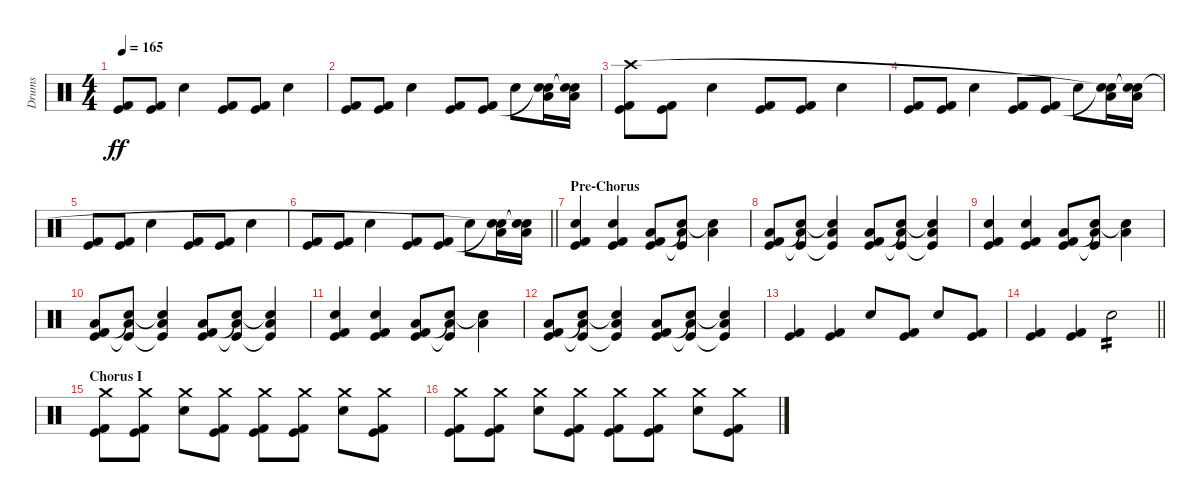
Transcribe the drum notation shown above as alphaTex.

\track ("Drums" "Drums") {instrument percussion}
\staff
\articulation defaults
\ts (4 4)
\tempo 165
\clef neutral
\ks c
("Kick (hit) 2" "Kick (hit)").8{dy ff} ("Kick (hit) 2" "Kick (hit)").8 "Electric Snare (hit)".4 ("Kick (hit) 2" "Kick (hit)").8 ("Kick (hit) 2" "Kick (hit)").8 "Electric Snare (hit)".4 |
("Kick (hit) 2" "Kick (hit)").8 ("Kick (hit) 2" "Kick (hit)").8 "Electric Snare (hit)".4 ("Kick (hit) 2" "Kick (hit)").8 ("Kick (hit) 2" "Kick (hit)").8 "Electric Snare (hit)".8 ("Low Tom (hit)" "Snare (hit)"{t} "Snare (hit)"{t}).16 ("Low Floor Tom (hit)" "Snare (hit)"{t} "Snare (hit)"{t}).16 |
("Kick (hit) 2" "Kick (hit)" "Crash high (hit)").8 ("Kick (hit) 2" "Kick (hit)").8 "Electric Snare (hit)".4 ("Kick (hit) 2" "Kick (hit)").8 ("Kick (hit) 2" "Kick (hit)").8 "Electric Snare (hit)".4 |
("Kick (hit) 2" "Kick (hit)").8 ("Kick (hit) 2" "Kick (hit)").8 "Electric Snare (hit)".4 ("Kick (hit) 2" "Kick (hit)").8 ("Kick (hit) 2" "Kick (hit)").8 "Electric Snare (hit)".8 ("Low Tom (hit)" "Snare (hit)"{t} "Snare (hit)"{t}).16 ("Low Floor Tom (hit)" "Snare (hit)"{t} "Snare (hit)"{t}).16 |
("Kick (hit) 2" "Kick (hit)").8 ("Kick (hit) 2" "Kick (hit)").8 "Electric Snare (hit)".4 ("Kick (hit) 2" "Kick (hit)").8 ("Kick (hit) 2" "Kick (hit)").8 "Electric Snare (hit)".4 |
\barLineRight lightlight
("Kick (hit) 2" "Kick (hit)").8 ("Kick (hit) 2" "Kick (hit)").8 "Electric Snare (hit)".4 ("Kick (hit) 2" "Kick (hit)").8 ("Kick (hit) 2" "Kick (hit)").8 "Electric Snare (hit)".8 ("Low Tom (hit)" "Snare (hit)"{t} "Snare (hit)"{t}).16 ("Low Floor Tom (hit)" "Snare (hit)"{t} "Snare (hit)"{t}).16 |
\section ("" "Pre-Chorus")
("Electric Snare (hit)" "Kick (hit) 2" "Kick (hit)").4 ("Electric Snare (hit)" "Kick (hit) 2" "Kick (hit)").4 ("Low Tom (hit)" "Kick (hit) 2" "Kick (hit)").8 ("Low Floor Tom (hit)" "Snare (hit)"{t} "Kick (hit)"{t}).8 ("Low Tom (hit)" "Snare (hit)"{t}).4 |
("Low Tom (hit)" "Kick (hit) 2" "Kick (hit)").8 ("Low Floor Tom (hit)" "Snare (hit)"{t} "Kick (hit)"{t}).8 ("Low Tom (hit)" "Snare (hit)"{t} "Kick (hit)"{t}).4 ("Low Tom (hit)" "Kick (hit) 2" "Kick (hit)").8 ("Low Floor Tom (hit)" "Snare (hit)"{t} "Kick (hit)"{t}).8 ("Low Tom (hit)" "Snare (hit)"{t} "Kick (hit)"{t}).4 |
("Electric Snare (hit)" "Kick (hit) 2" "Kick (hit)").4 ("Electric Snare (hit)" "Kick (hit) 2" "Kick (hit)").4 ("Low Tom (hit)" "Kick (hit) 2" "Kick (hit)").8 ("Low Floor Tom (hit)" "Snare (hit)"{t} "Kick (hit)"{t}).8 ("Low Tom (hit)" "Snare (hit)"{t}).4 |
("Low Tom (hit)" "Kick (hit) 2" "Kick (hit)").8 ("Low Floor Tom (hit)" "Snare (hit)"{t} "Kick (hit)"{t}).8 ("Low Tom (hit)" "Snare (hit)"{t} "Kick (hit)"{t}).4 ("Low Tom (hit)" "Kick (hit) 2" "Kick (hit)").8 ("Low Floor Tom (hit)" "Snare (hit)"{t} "Kick (hit)"{t}).8 ("Low Tom (hit)" "Snare (hit)"{t} "Kick (hit)"{t}).4 |
("Electric Snare (hit)" "Kick (hit) 2" "Kick (hit)").4 ("Electric Snare (hit)" "Kick (hit) 2" "Kick (hit)").4 ("Low Tom (hit)" "Kick (hit) 2" "Kick (hit)").8 ("Low Floor Tom (hit)" "Snare (hit)"{t} "Kick (hit)"{t}).8 ("Low Tom (hit)" "Snare (hit)"{t}).4 |
("Low Tom (hit)" "Kick (hit) 2" "Kick (hit)").8 ("Low Floor Tom (hit)" "Snare (hit)"{t} "Kick (hit)"{t}).8 ("Low Tom (hit)" "Snare (hit)"{t} "Kick (hit)"{t}).4 ("Low Tom (hit)" "Kick (hit) 2" "Kick (hit)").8 ("Low Floor Tom (hit)" "Snare (hit)"{t} "Kick (hit)"{t}).8 ("Low Tom (hit)" "Snare (hit)"{t} "Kick (hit)"{t}).4 |
("Kick (hit) 2" "Kick (hit)").4 ("Kick (hit) 2" "Kick (hit)").4 "Electric Snare (hit)".8 ("Kick (hit) 2" "Kick (hit)").8 "Electric Snare (hit)".8 ("Kick (hit) 2" "Kick (hit)").8 |
\barLineRight lightlight
("Kick (hit) 2" "Kick (hit)").4 ("Kick (hit) 2" "Kick (hit)").4 "Electric Snare (hit)".2{tp 2} |
\section ("" "Chorus I")
("Crash medium (hit)" "Kick (hit) 2" "Kick (hit)").8 ("Crash medium (hit)" "Kick (hit) 2" "Kick (hit)").8 ("Crash medium (hit)" "Electric Snare (hit)").8 ("Crash medium (hit)" "Kick (hit) 2" "Kick (hit)").8 ("Crash medium (hit)" "Kick (hit) 2" "Kick (hit)").8 ("Crash medium (hit)" "Kick (hit) 2" "Kick (hit)").8 ("Crash medium (hit)" "Electric Snare (hit)").8 ("Crash medium (hit)" "Kick (hit) 2" "Kick (hit)").8 |
("Crash medium (hit)" "Kick (hit) 2" "Kick (hit)").8 ("Crash medium (hit)" "Kick (hit) 2" "Kick (hit)").8 ("Crash medium (hit)" "Electric Snare (hit)").8 ("Crash medium (hit)" "Kick (hit) 2" "Kick (hit)").8 ("Crash medium (hit)" "Kick (hit) 2" "Kick (hit)").8 ("Crash medium (hit)" "Kick (hit) 2" "Kick (hit)").8 ("Crash medium (hit)" "Electric Snare (hit)").8 ("Crash medium (hit)" "Kick (hit) 2" "Kick (hit)").8
